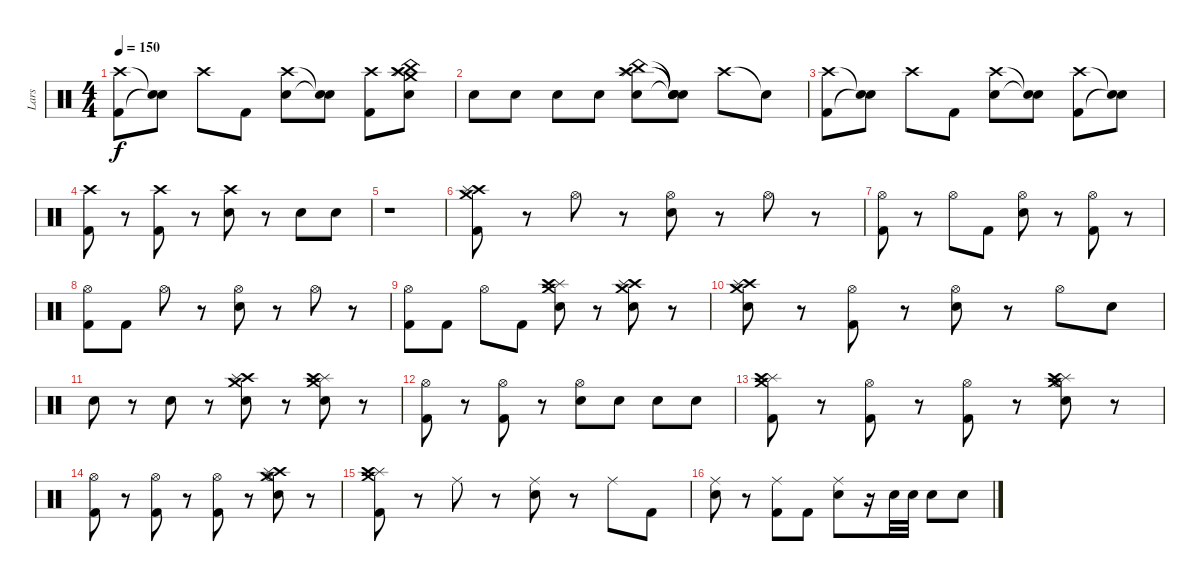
\track ("Lars" "Lars") {instrument percussion}
\staff {score}
\articulation defaults
\ts (4 4)
\tempo 150
\clef neutral
\ks c
("Crash high (hit)" "Kick (hit) 2").8{dy f} ("Snare (hit)"{t} "Snare (hit)"{t}).8 "Crash high (hit)".8 "Kick (hit) 2".8 ("Crash high (hit)" "Snare (hit) 2").8 ("Snare (hit)"{t} "Snare (hit)"{t}).8 ("Kick (hit) 2" "Crash high (hit)").8 ("Crash medium (hit)" "Splash (hit)" "China (hit)" "Crash high (hit)" "Snare (hit) 2").8 |
"Snare (hit) 2".8 "Snare (hit) 2".8 "Snare (hit) 2".8 "Snare (hit) 2".8 ("Crash high (hit)" "China (hit)" "Splash (hit)" "Snare (hit) 2").8 ("Snare (hit)"{t} "Snare (hit)"{t} "Snare (hit)"{t} "Snare (hit)"{t}).8 "Crash high (hit)".8 "Snare (hit)"{t}.8 |
("Crash high (hit)" "Kick (hit) 2").8 ("Snare (hit)"{t} "Snare (hit)"{t}).8 "Crash high (hit)".8 "Kick (hit) 2".8 ("Crash high (hit)" "Snare (hit) 2").8 ("Snare (hit)"{t} "Snare (hit)"{t}).8 ("Crash high (hit)" "Kick (hit) 2").8 ("Snare (hit)"{t} "Snare (hit)"{t}).8 |
("Crash high (hit)" "Kick (hit) 2").8 r.8 ("Crash high (hit)" "Kick (hit) 2").8 r.8 ("Crash high (hit)" "Snare (hit) 2").8 r.8 "Snare (hit) 2".8 "Snare (hit) 2".8 |
r.1 |
("Crash medium (hit)" "Crash high (hit)" "Splash (hit)" "Kick (hit) 2").8 r.8 "Hi-Hat (open)".8 r.8 ("Hi-Hat (open)" "Snare (hit) 2").8 r.8 "Hi-Hat (open)".8 r.8 |
("Hi-Hat (open)" "Kick (hit) 2").8 r.8 "Hi-Hat (open)".8 "Kick (hit) 2".8 ("Hi-Hat (open)" "Snare (hit) 2").8 r.8 ("Hi-Hat (open)" "Kick (hit) 2").8 r.8 |
("Hi-Hat (open)" "Kick (hit) 2").8 "Kick (hit) 2".8 "Hi-Hat (open)".8 r.8 ("Hi-Hat (open)" "Snare (hit) 2").8 r.8 "Hi-Hat (open)".8 r.8 |
("Hi-Hat (open)" "Kick (hit) 2").8 "Kick (hit) 2".8 "Hi-Hat (open)".8 "Kick (hit) 2".8 ("Crash medium (hit)" "Splash (hit)" "Crash high (hit)" "Snare (hit) 2").8 r.8 ("Crash medium (hit)" "Crash high (hit)" "Splash (hit)" "Snare (hit) 2").8 r.8 |
("Snare (hit) 2" "Crash high (hit)" "Splash (hit)" "Crash medium (hit)").8 r.8 ("Hi-Hat (open)" "Kick (hit) 2").8 r.8 ("Hi-Hat (open)" "Snare (hit) 2").8 r.8 "Hi-Hat (open)".8 "Snare (hit) 2".8 |
"Snare (hit) 2".8 r.8 "Snare (hit) 2".8 r.8 ("Crash high (hit)" "Splash (hit)" "Crash medium (hit)" "Snare (hit) 2").8 r.8 ("Splash (hit)" "Crash medium (hit)" "Snare (hit) 2" "Crash high (hit)").8 r.8 |
("Kick (hit) 2" "Hi-Hat (open)").8 r.8 ("Kick (hit) 2" "Hi-Hat (open)").8 r.8 ("Snare (hit) 2" "Hi-Hat (open)").8 "Snare (hit) 2".8 "Snare (hit) 2".8 "Snare (hit) 2".8 |
("Crash medium (hit)" "Splash (hit)" "Crash high (hit)" "Kick (hit) 2").8 r.8 ("Kick (hit) 2" "Hi-Hat (open)").8 r.8 ("Kick (hit) 2" "Hi-Hat (open)").8 r.8 ("Crash medium (hit)" "Splash (hit)" "Crash high (hit)" "Snare (hit) 2" "Hi-Hat (open)").8 r.8 |
("Hi-Hat (open)" "Kick (hit) 2").8 r.8 ("Hi-Hat (open)" "Kick (hit) 2").8 r.8 ("Hi-Hat (open)" "Kick (hit) 2").8 r.8 ("Crash high (hit)" "Splash (hit)" "Crash medium (hit)" "Hi-Hat (open)" "Snare (hit) 2").8 r.8 |
("Crash medium (hit)" "Splash (hit)" "Crash high (hit)" "Kick (hit) 2").8 r.8 "Ride (middle)".8 r.8 ("Ride (middle)" "Snare (hit) 2").8 r.8 "Ride (middle)".8 "Kick (hit) 2".8 |
("Ride (middle)" "Snare (hit) 2").8 r.8 ("Ride (middle)" "Kick (hit) 2").8 "Kick (hit) 2".8 ("Ride (middle)" "Snare (hit) 2").8 r.16 "Snare (hit) 2".32 "Snare (hit) 2".32 "Snare (hit) 2".8 "Snare (hit) 2".8
